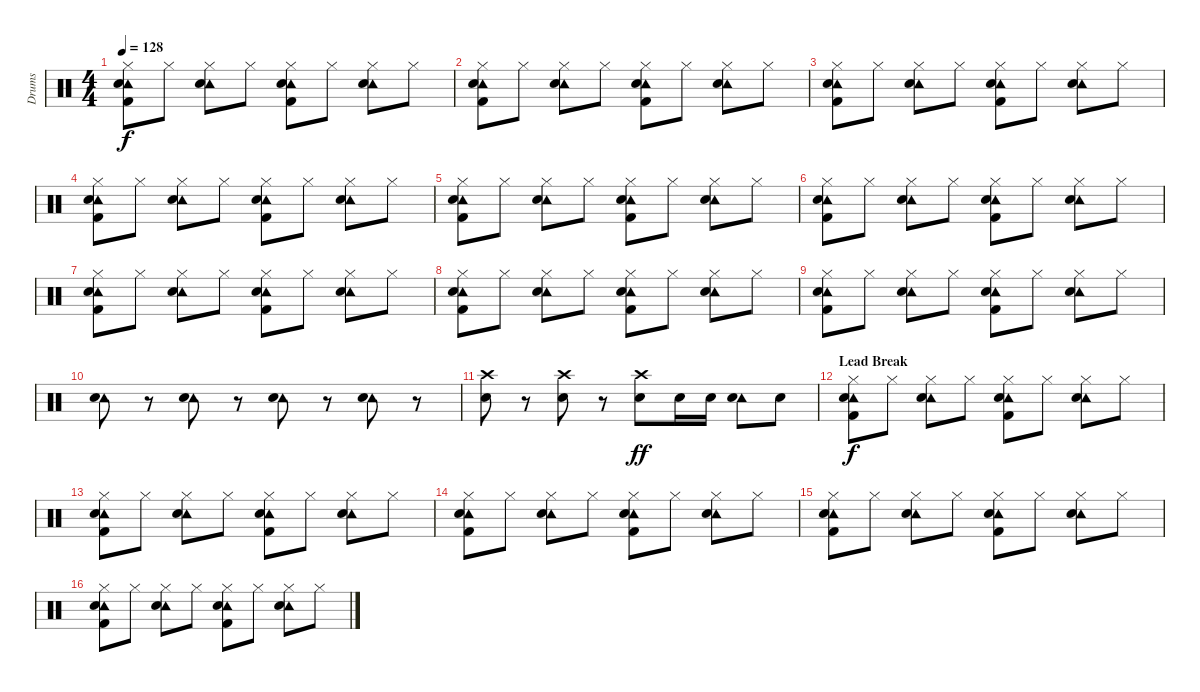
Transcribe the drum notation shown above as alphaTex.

\track ("Drums" "Drums") {instrument percussion}
\staff {score}
\articulation defaults
\ts (4 4)
\tempo 128
\clef neutral
\ks c
("Tambourine (hit)" "Hi-Hat (closed)" "Snare (hit) 2" "Kick (hit) 2").8{dy f} "Hi-Hat (closed)".8 ("Tambourine (hit)" "Hi-Hat (closed)" "Snare (hit) 2").8 "Hi-Hat (closed)".8 ("Tambourine (hit)" "Hi-Hat (closed)" "Snare (hit) 2" "Kick (hit) 2").8 "Hi-Hat (closed)".8 ("Tambourine (hit)" "Hi-Hat (closed)" "Snare (hit) 2").8 "Hi-Hat (closed)".8 |
("Tambourine (hit)" "Hi-Hat (closed)" "Snare (hit) 2" "Kick (hit) 2").8 "Hi-Hat (closed)".8 ("Tambourine (hit)" "Hi-Hat (closed)" "Snare (hit) 2").8 "Hi-Hat (closed)".8 ("Tambourine (hit)" "Hi-Hat (closed)" "Snare (hit) 2" "Kick (hit) 2").8 "Hi-Hat (closed)".8 ("Tambourine (hit)" "Hi-Hat (closed)" "Snare (hit) 2").8 "Hi-Hat (closed)".8 |
("Tambourine (hit)" "Hi-Hat (closed)" "Snare (hit) 2" "Kick (hit) 2").8 "Hi-Hat (closed)".8 ("Tambourine (hit)" "Hi-Hat (closed)" "Snare (hit) 2").8 "Hi-Hat (closed)".8 ("Tambourine (hit)" "Hi-Hat (closed)" "Snare (hit) 2" "Kick (hit) 2").8 "Hi-Hat (closed)".8 ("Tambourine (hit)" "Hi-Hat (closed)" "Snare (hit) 2").8 "Hi-Hat (closed)".8 |
("Tambourine (hit)" "Hi-Hat (closed)" "Snare (hit) 2" "Kick (hit) 2").8 "Hi-Hat (closed)".8 ("Tambourine (hit)" "Hi-Hat (closed)" "Snare (hit) 2").8 "Hi-Hat (closed)".8 ("Tambourine (hit)" "Hi-Hat (closed)" "Snare (hit) 2" "Kick (hit) 2").8 "Hi-Hat (closed)".8 ("Tambourine (hit)" "Hi-Hat (closed)" "Snare (hit) 2").8 "Hi-Hat (closed)".8 |
("Tambourine (hit)" "Hi-Hat (closed)" "Snare (hit) 2" "Kick (hit) 2").8 "Hi-Hat (closed)".8 ("Tambourine (hit)" "Hi-Hat (closed)" "Snare (hit) 2").8 "Hi-Hat (closed)".8 ("Tambourine (hit)" "Hi-Hat (closed)" "Snare (hit) 2" "Kick (hit) 2").8 "Hi-Hat (closed)".8 ("Tambourine (hit)" "Hi-Hat (closed)" "Snare (hit) 2").8 "Hi-Hat (closed)".8 |
("Tambourine (hit)" "Hi-Hat (closed)" "Snare (hit) 2" "Kick (hit) 2").8 "Hi-Hat (closed)".8 ("Tambourine (hit)" "Hi-Hat (closed)" "Snare (hit) 2").8 "Hi-Hat (closed)".8 ("Tambourine (hit)" "Hi-Hat (closed)" "Snare (hit) 2" "Kick (hit) 2").8 "Hi-Hat (closed)".8 ("Tambourine (hit)" "Hi-Hat (closed)" "Snare (hit) 2").8 "Hi-Hat (closed)".8 |
("Tambourine (hit)" "Hi-Hat (closed)" "Snare (hit) 2" "Kick (hit) 2").8 "Hi-Hat (closed)".8 ("Tambourine (hit)" "Hi-Hat (closed)" "Snare (hit) 2").8 "Hi-Hat (closed)".8 ("Tambourine (hit)" "Hi-Hat (closed)" "Snare (hit) 2" "Kick (hit) 2").8 "Hi-Hat (closed)".8 ("Tambourine (hit)" "Hi-Hat (closed)" "Snare (hit) 2").8 "Hi-Hat (closed)".8 |
("Tambourine (hit)" "Hi-Hat (closed)" "Snare (hit) 2" "Kick (hit) 2").8 "Hi-Hat (closed)".8 ("Tambourine (hit)" "Hi-Hat (closed)" "Snare (hit) 2").8 "Hi-Hat (closed)".8 ("Tambourine (hit)" "Hi-Hat (closed)" "Snare (hit) 2" "Kick (hit) 2").8 "Hi-Hat (closed)".8 ("Tambourine (hit)" "Hi-Hat (closed)" "Snare (hit) 2").8 "Hi-Hat (closed)".8 |
("Tambourine (hit)" "Hi-Hat (closed)" "Snare (hit) 2" "Kick (hit) 2").8 "Hi-Hat (closed)".8 ("Tambourine (hit)" "Hi-Hat (closed)" "Snare (hit) 2").8 "Hi-Hat (closed)".8 ("Tambourine (hit)" "Hi-Hat (closed)" "Snare (hit) 2" "Kick (hit) 2").8 "Hi-Hat (closed)".8 ("Tambourine (hit)" "Hi-Hat (closed)" "Snare (hit) 2").8 "Hi-Hat (closed)".8 |
("Tambourine (hit)" "Snare (hit) 2").8 r.8 ("Tambourine (hit)" "Snare (hit) 2").8 r.8 ("Tambourine (hit)" "Snare (hit) 2").8 r.8 ("Tambourine (hit)" "Snare (hit) 2").8 r.8 |
("Crash high (hit)" "Snare (hit) 2").8 r.8 ("Crash high (hit)" "Snare (hit) 2").8 r.8 ("Crash high (hit)" "Snare (hit) 2").8{dy ff} "Snare (hit) 2".16 "Snare (hit) 2".16 ("Tambourine (hit)" "Snare (hit) 2").8 "Snare (hit) 2".8 |
\section ("" "Lead Break")
("Tambourine (hit)" "Hi-Hat (closed)" "Snare (hit) 2" "Kick (hit) 2").8{dy f} "Hi-Hat (closed)".8 ("Tambourine (hit)" "Hi-Hat (closed)" "Snare (hit) 2").8 "Hi-Hat (closed)".8 ("Tambourine (hit)" "Hi-Hat (closed)" "Snare (hit) 2" "Kick (hit) 2").8 "Hi-Hat (closed)".8 ("Tambourine (hit)" "Hi-Hat (closed)" "Snare (hit) 2").8 "Hi-Hat (closed)".8 |
("Tambourine (hit)" "Hi-Hat (closed)" "Snare (hit) 2" "Kick (hit) 2").8 "Hi-Hat (closed)".8 ("Tambourine (hit)" "Hi-Hat (closed)" "Snare (hit) 2").8 "Hi-Hat (closed)".8 ("Tambourine (hit)" "Hi-Hat (closed)" "Snare (hit) 2" "Kick (hit) 2").8 "Hi-Hat (closed)".8 ("Tambourine (hit)" "Hi-Hat (closed)" "Snare (hit) 2").8 "Hi-Hat (closed)".8 |
("Tambourine (hit)" "Hi-Hat (closed)" "Snare (hit) 2" "Kick (hit) 2").8 "Hi-Hat (closed)".8 ("Tambourine (hit)" "Hi-Hat (closed)" "Snare (hit) 2").8 "Hi-Hat (closed)".8 ("Tambourine (hit)" "Hi-Hat (closed)" "Snare (hit) 2" "Kick (hit) 2").8 "Hi-Hat (closed)".8 ("Tambourine (hit)" "Hi-Hat (closed)" "Snare (hit) 2").8 "Hi-Hat (closed)".8 |
("Tambourine (hit)" "Hi-Hat (closed)" "Snare (hit) 2" "Kick (hit) 2").8 "Hi-Hat (closed)".8 ("Tambourine (hit)" "Hi-Hat (closed)" "Snare (hit) 2").8 "Hi-Hat (closed)".8 ("Tambourine (hit)" "Hi-Hat (closed)" "Snare (hit) 2" "Kick (hit) 2").8 "Hi-Hat (closed)".8 ("Tambourine (hit)" "Hi-Hat (closed)" "Snare (hit) 2").8 "Hi-Hat (closed)".8 |
("Tambourine (hit)" "Hi-Hat (closed)" "Snare (hit) 2" "Kick (hit) 2").8 "Hi-Hat (closed)".8 ("Tambourine (hit)" "Hi-Hat (closed)" "Snare (hit) 2").8 "Hi-Hat (closed)".8 ("Tambourine (hit)" "Hi-Hat (closed)" "Snare (hit) 2" "Kick (hit) 2").8 "Hi-Hat (closed)".8 ("Tambourine (hit)" "Hi-Hat (closed)" "Snare (hit) 2").8 "Hi-Hat (closed)".8
